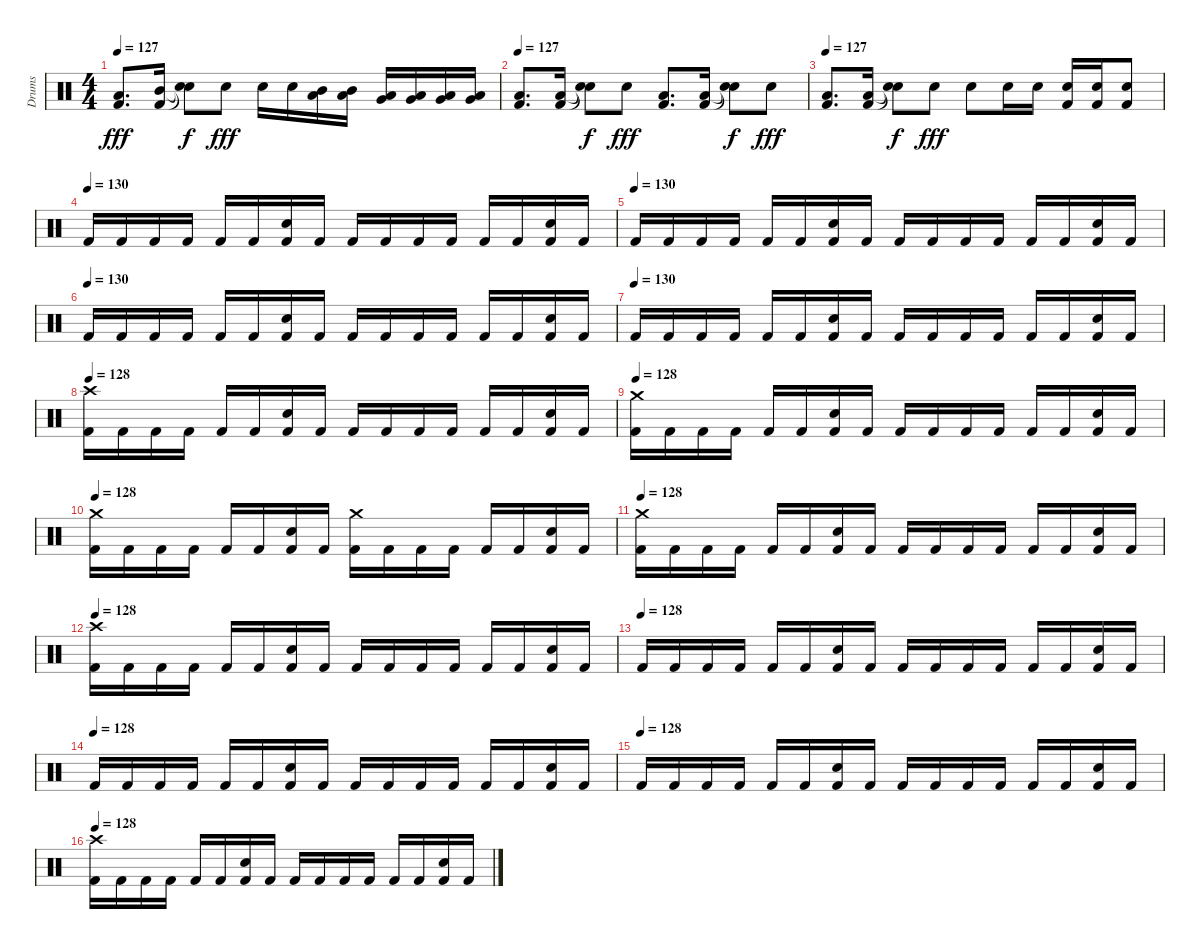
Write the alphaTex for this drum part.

\track ("Drums" "Drums") {instrument percussion}
\staff {score}
\articulation defaults
\ts (4 4)
\tempo 127
\clef neutral
\ks c
("Low Tom (hit)" "Kick (hit) 2").8{d dy fff} ("Mid Tom (hit)" "Kick (hit) 2").16 ("Snare (hit)"{t} "Snare (hit)"{t}).8{dy f} "Electric Snare (hit)".8{dy fff} "Electric Snare (hit)".16 "Electric Snare (hit)".16 ("Mid Tom (hit)" "Low Tom (hit)").16 ("Mid Tom (hit)" "Low Tom (hit)").16 ("Low Tom (hit)" "Very Low Tom (hit)").16 ("Low Tom (hit)" "Very Low Tom (hit)").16 ("Very Low Tom (hit)" "Low Floor Tom (hit)").16 ("Very Low Tom (hit)" "Low Floor Tom (hit)").16 |
\tempo 127
("Low Tom (hit)" "Kick (hit) 2").8{d} ("Low Tom (hit)" "Kick (hit) 2").16 ("Snare (hit)"{t} "Snare (hit)"{t}).8{dy f} "Electric Snare (hit)".8{dy fff} ("Low Tom (hit)" "Kick (hit) 2").8{d} ("Low Tom (hit)" "Kick (hit) 2").16 ("Snare (hit)"{t} "Snare (hit)"{t}).8{dy f} "Electric Snare (hit)".8{dy fff} |
\tempo 127
("Low Tom (hit)" "Kick (hit) 2").8{d} ("Low Tom (hit)" "Kick (hit) 2").16 ("Snare (hit)"{t} "Snare (hit)"{t}).8{dy f} "Electric Snare (hit)".8{dy fff} "Electric Snare (hit)".8 "Electric Snare (hit)".16 "Electric Snare (hit)".16 ("Electric Snare (hit)" "Kick (hit) 2").16 ("Electric Snare (hit)" "Kick (hit) 2").16 ("Electric Snare (hit)" "Kick (hit) 2").8 |
\tempo (130)
"Kick (hit) 2".16 "Kick (hit) 2".16 "Kick (hit) 2".16 "Kick (hit) 2".16 "Kick (hit) 2".16 "Kick (hit) 2".16 ("Electric Snare (hit)" "Kick (hit) 2").16 "Kick (hit) 2".16 "Kick (hit) 2".16 "Kick (hit) 2".16 "Kick (hit) 2".16 "Kick (hit) 2".16 "Kick (hit) 2".16 "Kick (hit) 2".16 ("Electric Snare (hit)" "Kick (hit) 2").16 "Kick (hit) 2".16 |
\tempo (130)
"Kick (hit) 2".16 "Kick (hit) 2".16 "Kick (hit) 2".16 "Kick (hit) 2".16 "Kick (hit) 2".16 "Kick (hit) 2".16 ("Electric Snare (hit)" "Kick (hit) 2").16 "Kick (hit) 2".16 "Kick (hit) 2".16 "Kick (hit) 2".16 "Kick (hit) 2".16 "Kick (hit) 2".16 "Kick (hit) 2".16 "Kick (hit) 2".16 ("Electric Snare (hit)" "Kick (hit) 2").16 "Kick (hit) 2".16 |
\tempo (130)
"Kick (hit) 2".16 "Kick (hit) 2".16 "Kick (hit) 2".16 "Kick (hit) 2".16 "Kick (hit) 2".16 "Kick (hit) 2".16 ("Electric Snare (hit)" "Kick (hit) 2").16 "Kick (hit) 2".16 "Kick (hit) 2".16 "Kick (hit) 2".16 "Kick (hit) 2".16 "Kick (hit) 2".16 "Kick (hit) 2".16 "Kick (hit) 2".16 ("Electric Snare (hit)" "Kick (hit) 2").16 "Kick (hit) 2".16 |
\tempo (130)
"Kick (hit) 2".16 "Kick (hit) 2".16 "Kick (hit) 2".16 "Kick (hit) 2".16 "Kick (hit) 2".16 "Kick (hit) 2".16 ("Electric Snare (hit)" "Kick (hit) 2").16 "Kick (hit) 2".16 "Kick (hit) 2".16 "Kick (hit) 2".16 "Kick (hit) 2".16 "Kick (hit) 2".16 "Kick (hit) 2".16 "Kick (hit) 2".16 ("Electric Snare (hit)" "Kick (hit) 2").16 "Kick (hit) 2".16 |
\tempo 128
("Crash high (hit)" "Kick (hit) 2").16 "Kick (hit) 2".16 "Kick (hit) 2".16 "Kick (hit) 2".16 "Kick (hit) 2".16 "Kick (hit) 2".16 ("Electric Snare (hit)" "Kick (hit) 2").16 "Kick (hit) 2".16 "Kick (hit) 2".16 "Kick (hit) 2".16 "Kick (hit) 2".16 "Kick (hit) 2".16 "Kick (hit) 2".16 "Kick (hit) 2".16 ("Electric Snare (hit)" "Kick (hit) 2").16 "Kick (hit) 2".16 |
\tempo 128
("Crash medium (hit)" "Kick (hit) 2").16 "Kick (hit) 2".16 "Kick (hit) 2".16 "Kick (hit) 2".16 "Kick (hit) 2".16 "Kick (hit) 2".16 ("Electric Snare (hit)" "Kick (hit) 2").16 "Kick (hit) 2".16 "Kick (hit) 2".16 "Kick (hit) 2".16 "Kick (hit) 2".16 "Kick (hit) 2".16 "Kick (hit) 2".16 "Kick (hit) 2".16 ("Electric Snare (hit)" "Kick (hit) 2").16 "Kick (hit) 2".16 |
\tempo 128
("Crash medium (hit)" "Kick (hit) 2").16 "Kick (hit) 2".16 "Kick (hit) 2".16 "Kick (hit) 2".16 "Kick (hit) 2".16 "Kick (hit) 2".16 ("Electric Snare (hit)" "Kick (hit) 2").16 "Kick (hit) 2".16 ("Crash medium (hit)" "Kick (hit) 2").16 "Kick (hit) 2".16 "Kick (hit) 2".16 "Kick (hit) 2".16 "Kick (hit) 2".16 "Kick (hit) 2".16 ("Electric Snare (hit)" "Kick (hit) 2").16 "Kick (hit) 2".16 |
\tempo 128
("Crash medium (hit)" "Kick (hit) 2").16 "Kick (hit) 2".16 "Kick (hit) 2".16 "Kick (hit) 2".16 "Kick (hit) 2".16 "Kick (hit) 2".16 ("Electric Snare (hit)" "Kick (hit) 2").16 "Kick (hit) 2".16 "Kick (hit) 2".16 "Kick (hit) 2".16 "Kick (hit) 2".16 "Kick (hit) 2".16 "Kick (hit) 2".16 "Kick (hit) 2".16 ("Electric Snare (hit)" "Kick (hit) 2").16 "Kick (hit) 2".16 |
\tempo 128
("Crash high (hit)" "Kick (hit) 2").16 "Kick (hit) 2".16 "Kick (hit) 2".16 "Kick (hit) 2".16 "Kick (hit) 2".16 "Kick (hit) 2".16 ("Electric Snare (hit)" "Kick (hit) 2").16 "Kick (hit) 2".16 "Kick (hit) 2".16 "Kick (hit) 2".16 "Kick (hit) 2".16 "Kick (hit) 2".16 "Kick (hit) 2".16 "Kick (hit) 2".16 ("Electric Snare (hit)" "Kick (hit) 2").16 "Kick (hit) 2".16 |
\tempo (128)
"Kick (hit) 2".16 "Kick (hit) 2".16 "Kick (hit) 2".16 "Kick (hit) 2".16 "Kick (hit) 2".16 "Kick (hit) 2".16 ("Electric Snare (hit)" "Kick (hit) 2").16 "Kick (hit) 2".16 "Kick (hit) 2".16 "Kick (hit) 2".16 "Kick (hit) 2".16 "Kick (hit) 2".16 "Kick (hit) 2".16 "Kick (hit) 2".16 ("Electric Snare (hit)" "Kick (hit) 2").16 "Kick (hit) 2".16 |
\tempo (128)
"Kick (hit) 2".16 "Kick (hit) 2".16 "Kick (hit) 2".16 "Kick (hit) 2".16 "Kick (hit) 2".16 "Kick (hit) 2".16 ("Electric Snare (hit)" "Kick (hit) 2").16 "Kick (hit) 2".16 "Kick (hit) 2".16 "Kick (hit) 2".16 "Kick (hit) 2".16 "Kick (hit) 2".16 "Kick (hit) 2".16 "Kick (hit) 2".16 ("Electric Snare (hit)" "Kick (hit) 2").16 "Kick (hit) 2".16 |
\tempo (128)
"Kick (hit) 2".16 "Kick (hit) 2".16 "Kick (hit) 2".16 "Kick (hit) 2".16 "Kick (hit) 2".16 "Kick (hit) 2".16 ("Electric Snare (hit)" "Kick (hit) 2").16 "Kick (hit) 2".16 "Kick (hit) 2".16 "Kick (hit) 2".16 "Kick (hit) 2".16 "Kick (hit) 2".16 "Kick (hit) 2".16 "Kick (hit) 2".16 ("Electric Snare (hit)" "Kick (hit) 2").16 "Kick (hit) 2".16 |
\tempo 128
("Crash high (hit)" "Kick (hit) 2").16 "Kick (hit) 2".16 "Kick (hit) 2".16 "Kick (hit) 2".16 "Kick (hit) 2".16 "Kick (hit) 2".16 ("Electric Snare (hit)" "Kick (hit) 2").16 "Kick (hit) 2".16 "Kick (hit) 2".16 "Kick (hit) 2".16 "Kick (hit) 2".16 "Kick (hit) 2".16 "Kick (hit) 2".16 "Kick (hit) 2".16 ("Electric Snare (hit)" "Kick (hit) 2").16 "Kick (hit) 2".16
